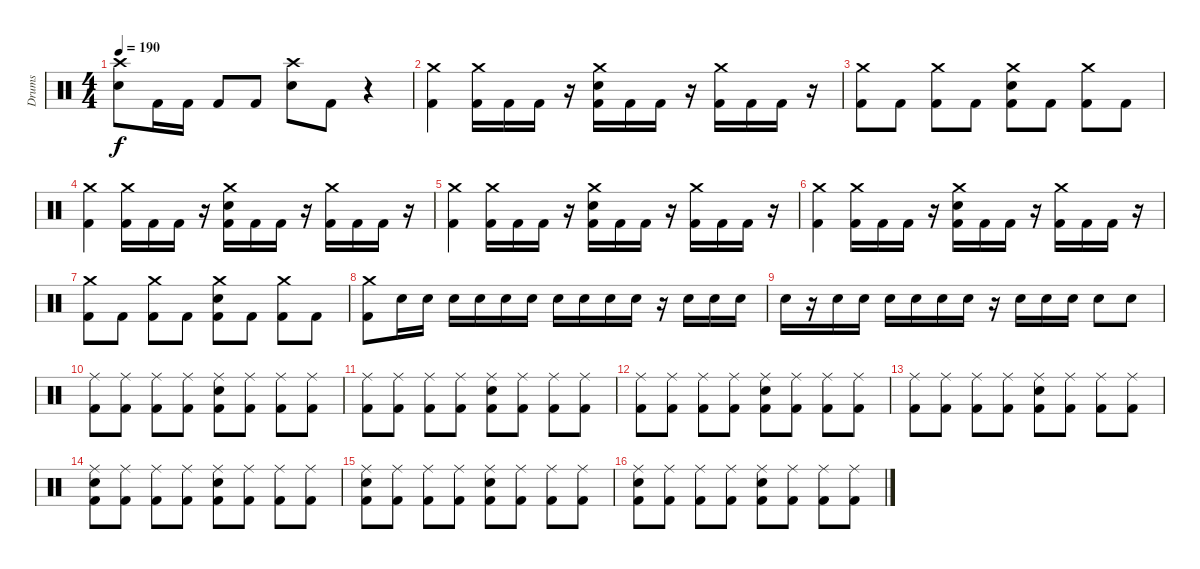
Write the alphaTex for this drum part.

\track ("Drums" "Drums") {instrument percussion}
\staff {score}
\articulation defaults
\ts (4 4)
\tempo 190
\clef neutral
\ks c
("Crash high (hit)" "Electric Snare (hit)").8{dy f} "Kick (hit) 2".16 "Kick (hit) 2".16 "Kick (hit) 2".8 "Kick (hit) 2".8 ("Crash high (hit)" "Electric Snare (hit)").8 "Kick (hit) 2".8 r.4 |
("Crash medium (hit)" "Kick (hit) 2").4 ("Crash medium (hit)" "Kick (hit) 2").16 "Kick (hit) 2".16 "Kick (hit) 2".16 r.16 ("Crash medium (hit)" "Electric Snare (hit)" "Kick (hit) 2").16 "Kick (hit) 2".16 "Kick (hit) 2".16 r.16 ("Crash medium (hit)" "Kick (hit) 2").16 "Kick (hit) 2".16 "Kick (hit) 2".16 r.16 |
("Crash medium (hit)" "Kick (hit) 2").8 "Kick (hit) 2".8 ("Crash medium (hit)" "Kick (hit) 2").8 "Kick (hit) 2".8 ("Crash medium (hit)" "Electric Snare (hit)" "Kick (hit) 2").8 "Kick (hit) 2".8 ("Crash medium (hit)" "Kick (hit) 2").8 "Kick (hit) 2".8 |
("Crash medium (hit)" "Kick (hit) 2").4 ("Crash medium (hit)" "Kick (hit) 2").16 "Kick (hit) 2".16 "Kick (hit) 2".16 r.16 ("Crash medium (hit)" "Electric Snare (hit)" "Kick (hit) 2").16 "Kick (hit) 2".16 "Kick (hit) 2".16 r.16 ("Crash medium (hit)" "Kick (hit) 2").16 "Kick (hit) 2".16 "Kick (hit) 2".16 r.16 |
("Crash medium (hit)" "Kick (hit) 2").4 ("Crash medium (hit)" "Kick (hit) 2").16 "Kick (hit) 2".16 "Kick (hit) 2".16 r.16 ("Crash medium (hit)" "Electric Snare (hit)" "Kick (hit) 2").16 "Kick (hit) 2".16 "Kick (hit) 2".16 r.16 ("Crash medium (hit)" "Kick (hit) 2").16 "Kick (hit) 2".16 "Kick (hit) 2".16 r.16 |
("Crash medium (hit)" "Kick (hit) 2").4 ("Crash medium (hit)" "Kick (hit) 2").16 "Kick (hit) 2".16 "Kick (hit) 2".16 r.16 ("Crash medium (hit)" "Electric Snare (hit)" "Kick (hit) 2").16 "Kick (hit) 2".16 "Kick (hit) 2".16 r.16 ("Crash medium (hit)" "Kick (hit) 2").16 "Kick (hit) 2".16 "Kick (hit) 2".16 r.16 |
("Crash medium (hit)" "Kick (hit) 2").8 "Kick (hit) 2".8 ("Crash medium (hit)" "Kick (hit) 2").8 "Kick (hit) 2".8 ("Crash medium (hit)" "Electric Snare (hit)" "Kick (hit) 2").8 "Kick (hit) 2".8 ("Crash medium (hit)" "Kick (hit) 2").8 "Kick (hit) 2".8 |
("Crash medium (hit)" "Kick (hit) 2").8 "Electric Snare (hit)".16 "Electric Snare (hit)".16 "Electric Snare (hit)".16 "Electric Snare (hit)".16 "Electric Snare (hit)".16 "Electric Snare (hit)".16 "Electric Snare (hit)".16 "Electric Snare (hit)".16 "Electric Snare (hit)".16 "Electric Snare (hit)".16 r.16 "Electric Snare (hit)".16 "Electric Snare (hit)".16 "Electric Snare (hit)".16 |
"Electric Snare (hit)".16 r.16 "Electric Snare (hit)".16 "Electric Snare (hit)".16 "Electric Snare (hit)".16 "Electric Snare (hit)".16 "Electric Snare (hit)".16 "Electric Snare (hit)".16 r.16 "Electric Snare (hit)".16 "Electric Snare (hit)".16 "Electric Snare (hit)".16 "Electric Snare (hit)".8 "Electric Snare (hit)".8 |
("Ride (middle)" "Kick (hit) 2").8 ("Ride (middle)" "Kick (hit) 2").8 ("Ride (middle)" "Kick (hit) 2").8 ("Ride (middle)" "Kick (hit) 2").8 ("Ride (middle)" "Electric Snare (hit)" "Kick (hit) 2").8 ("Ride (middle)" "Kick (hit) 2").8 ("Ride (middle)" "Kick (hit) 2").8 ("Ride (middle)" "Kick (hit) 2").8 |
("Ride (middle)" "Kick (hit) 2").8 ("Ride (middle)" "Kick (hit) 2").8 ("Ride (middle)" "Kick (hit) 2").8 ("Ride (middle)" "Kick (hit) 2").8 ("Ride (middle)" "Electric Snare (hit)" "Kick (hit) 2").8 ("Ride (middle)" "Kick (hit) 2").8 ("Ride (middle)" "Kick (hit) 2").8 ("Ride (middle)" "Kick (hit) 2").8 |
("Ride (middle)" "Kick (hit) 2").8 ("Ride (middle)" "Kick (hit) 2").8 ("Ride (middle)" "Kick (hit) 2").8 ("Ride (middle)" "Kick (hit) 2").8 ("Ride (middle)" "Electric Snare (hit)" "Kick (hit) 2").8 ("Ride (middle)" "Kick (hit) 2").8 ("Ride (middle)" "Kick (hit) 2").8 ("Ride (middle)" "Kick (hit) 2").8 |
("Ride (middle)" "Kick (hit) 2").8 ("Ride (middle)" "Kick (hit) 2").8 ("Ride (middle)" "Kick (hit) 2").8 ("Ride (middle)" "Kick (hit) 2").8 ("Ride (middle)" "Electric Snare (hit)" "Kick (hit) 2").8 ("Ride (middle)" "Kick (hit) 2").8 ("Ride (middle)" "Kick (hit) 2").8 ("Ride (middle)" "Kick (hit) 2").8 |
("Ride (middle)" "Electric Snare (hit)" "Kick (hit) 2").8 ("Ride (middle)" "Kick (hit) 2").8 ("Ride (middle)" "Kick (hit) 2").8 ("Ride (middle)" "Kick (hit) 2").8 ("Ride (middle)" "Electric Snare (hit)" "Kick (hit) 2").8 ("Ride (middle)" "Kick (hit) 2").8 ("Ride (middle)" "Kick (hit) 2").8 ("Ride (middle)" "Kick (hit) 2").8 |
("Ride (middle)" "Electric Snare (hit)" "Kick (hit) 2").8 ("Ride (middle)" "Kick (hit) 2").8 ("Ride (middle)" "Kick (hit) 2").8 ("Ride (middle)" "Kick (hit) 2").8 ("Ride (middle)" "Electric Snare (hit)" "Kick (hit) 2").8 ("Ride (middle)" "Kick (hit) 2").8 ("Ride (middle)" "Kick (hit) 2").8 ("Ride (middle)" "Kick (hit) 2").8 |
("Ride (middle)" "Electric Snare (hit)" "Kick (hit) 2").8 ("Ride (middle)" "Kick (hit) 2").8 ("Ride (middle)" "Kick (hit) 2").8 ("Ride (middle)" "Kick (hit) 2").8 ("Ride (middle)" "Electric Snare (hit)" "Kick (hit) 2").8 ("Ride (middle)" "Kick (hit) 2").8 ("Ride (middle)" "Kick (hit) 2").8 ("Ride (middle)" "Kick (hit) 2").8
